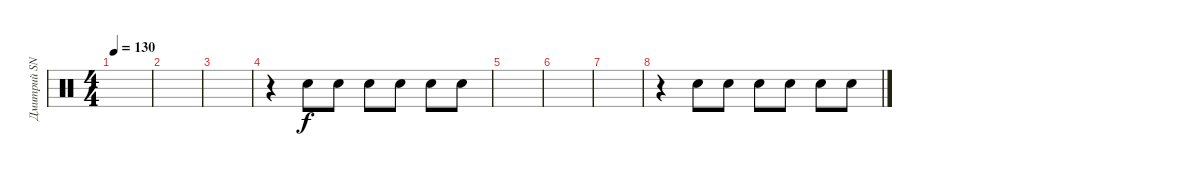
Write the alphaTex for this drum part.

\track ("Дмитрий SNAKE Хакимов (drum-machine)" "Дмитрий SN") {instrument percussion}
\staff {score}
\articulation defaults
\ts (4 4)
\tempo 130
\clef neutral
\ks c
|
|
|
r.4 "Electric Snare (hit)".8 "Electric Snare (hit)".8 "Electric Snare (hit)".8 "Electric Snare (hit)".8 "Electric Snare (hit)".8 "Electric Snare (hit)".8 |
|
|
|
r.4 "Electric Snare (hit)".8 "Electric Snare (hit)".8 "Electric Snare (hit)".8 "Electric Snare (hit)".8 "Electric Snare (hit)".8 "Electric Snare (hit)".8
